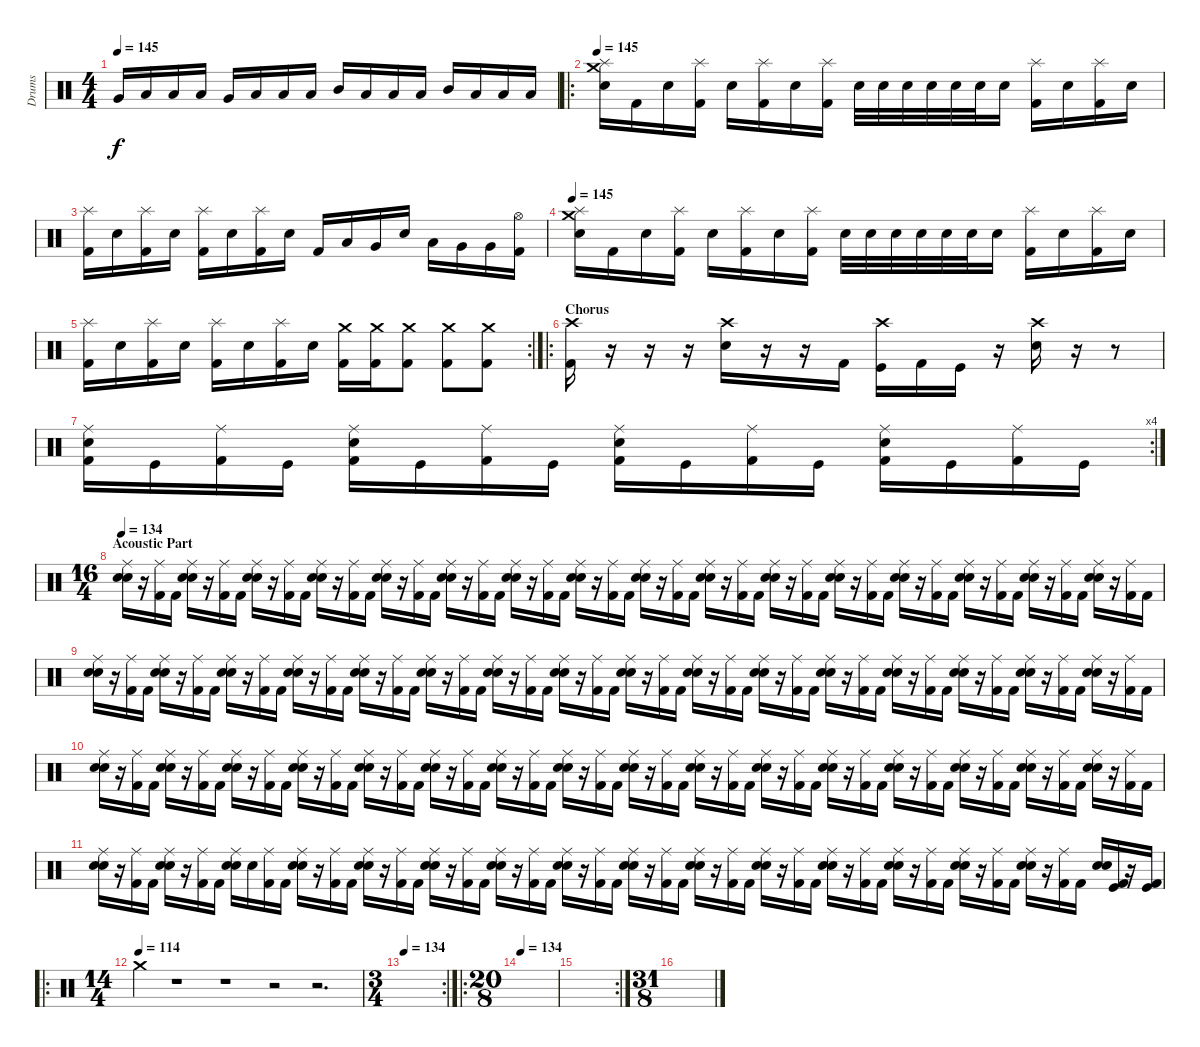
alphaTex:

\track ("Drums" "Drums") {instrument percussion}
\staff {score}
\articulation defaults
\ts (4 4)
\tempo 145
\clef neutral
\ks c "Very Low Tom (hit)".16{dy f} "Low Floor Tom (hit)".16 "Low Floor Tom (hit)".16 "Low Floor Tom (hit)".16 "Very Low Tom (hit)".16 "Low Floor Tom (hit)".16 "Low Floor Tom (hit)".16 "Low Floor Tom (hit)".16 "Mid Tom (hit)".16 "Low Tom (hit)".16 "Low Tom (hit)".16 "Low Tom (hit)".16 "Mid Tom (hit)".16 "Low Tom (hit)".16 "Low Tom (hit)".16 "Low Tom (hit)".16
|
\ro
\tempo 145
("Electric Snare (hit)" "Crash medium (hit)" "Splash (hit)").16 "Kick (hit) 2".16 "Electric Snare (hit)".16 ("Kick (hit) 2" "Splash (hit)").16 "Electric Snare (hit)".16 ("Kick (hit) 2" "Splash (hit)").16 "Electric Snare (hit)".16 ("Kick (hit) 2" "Splash (hit)").16 "Electric Snare (hit)".32 "Electric Snare (hit)".32 "Electric Snare (hit)".32 "Electric Snare (hit)".32 "Electric Snare (hit)".32 "Electric Snare (hit)".32 "Electric Snare (hit)".16 ("Kick (hit) 2" "Splash (hit)").16 "Electric Snare (hit)".16 ("Kick (hit) 2" "Splash (hit)").16 "Electric Snare (hit)".16 |
("Kick (hit) 2" "Splash (hit)").16 "Electric Snare (hit)".16 ("Kick (hit) 2" "Splash (hit)").16 "Electric Snare (hit)".16 ("Kick (hit) 2" "Splash (hit)").16 "Electric Snare (hit)".16 ("Kick (hit) 2" "Splash (hit)").16 "Electric Snare (hit)".16 "Kick (hit) 2".16 "Low Tom (hit)".16 "Very Low Tom (hit)".16 "Electric Snare (hit)".16 "Low Tom (hit)".16 "Very Low Tom (hit)".16 "Very Low Tom (hit)".16 ("Kick (hit) 2" "Hi-Hat (open)").16 |
\tempo 145
("Electric Snare (hit)" "Crash medium (hit)" "Splash (hit)").16 "Kick (hit) 2".16 "Electric Snare (hit)".16 ("Kick (hit) 2" "Splash (hit)").16 "Electric Snare (hit)".16 ("Kick (hit) 2" "Splash (hit)").16 "Electric Snare (hit)".16 ("Kick (hit) 2" "Splash (hit)").16 "Electric Snare (hit)".32 "Electric Snare (hit)".32 "Electric Snare (hit)".32 "Electric Snare (hit)".32 "Electric Snare (hit)".32 "Electric Snare (hit)".32 "Electric Snare (hit)".16 ("Kick (hit) 2" "Splash (hit)").16 "Electric Snare (hit)".16 ("Kick (hit) 2" "Splash (hit)").16 "Electric Snare (hit)".16 |
\rc 2
("Kick (hit) 2" "Splash (hit)").16 "Electric Snare (hit)".16 ("Kick (hit) 2" "Splash (hit)").16 "Electric Snare (hit)".16 ("Kick (hit) 2" "Splash (hit)").16 "Electric Snare (hit)".16 ("Kick (hit) 2" "Splash (hit)").16 "Electric Snare (hit)".16 ("Kick (hit) 2" "Crash medium (hit)").16 ("Kick (hit) 2" "Crash medium (hit)").16 ("Kick (hit) 2" "Crash medium (hit)").8 ("Kick (hit) 2" "Crash medium (hit)").8 ("Kick (hit) 2" "Crash medium (hit)").8 |
\ro
\section ("" "Chorus")
("Kick (hit) 2" "Crash high (hit)").16 r.16 r.16 r.16 ("Electric Snare (hit)" "Crash high (hit)").16 r.16 r.16 "Kick (hit) 2".16 ("Kick (hit)" "Crash high (hit)").16 "Kick (hit) 2".16 "Kick (hit)".16 r.16 ("Electric Snare (hit)" "Crash high (hit)").16 r.16 r.8 |
\rc 4
("Kick (hit) 2" "Electric Snare (hit)" "Ride (middle)").16 "Kick (hit)".16 ("Kick (hit) 2" "Ride (middle)").16 "Kick (hit)".16 ("Kick (hit) 2" "Electric Snare (hit)" "Ride (middle)").16 "Kick (hit)".16 ("Kick (hit) 2" "Ride (middle)").16 "Kick (hit)".16 ("Kick (hit) 2" "Electric Snare (hit)" "Ride (middle)").16 "Kick (hit)".16 ("Kick (hit) 2" "Ride (middle)").16 "Kick (hit)".16 ("Kick (hit) 2" "Electric Snare (hit)" "Ride (middle)").16 "Kick (hit)".16 ("Kick (hit) 2" "Ride (middle)").16 "Kick (hit)".16 |
\ts (16 4)
\section ("" "Acoustic Part")
\tempo 134
("Electric Snare (hit)" "Electric Snare (hit)" "Ride (middle)").16 r.16 ("Kick (hit) 2" "Ride (middle)").16 "Kick (hit) 2".16 ("Electric Snare (hit)" "Electric Snare (hit)" "Ride (middle)").16 r.16 ("Kick (hit) 2" "Ride (middle)").16 "Kick (hit) 2".16 ("Electric Snare (hit)" "Electric Snare (hit)" "Ride (middle)").16 r.16 ("Kick (hit) 2" "Ride (middle)").16 "Kick (hit) 2".16 ("Electric Snare (hit)" "Electric Snare (hit)" "Ride (middle)").16 r.16 ("Kick (hit) 2" "Ride (middle)").16 "Kick (hit) 2".16 ("Electric Snare (hit)" "Electric Snare (hit)" "Ride (middle)").16 r.16 ("Kick (hit) 2" "Ride (middle)").16 "Kick (hit) 2".16 ("Electric Snare (hit)" "Electric Snare (hit)" "Ride (middle)").16 r.16 ("Kick (hit) 2" "Ride (middle)").16 "Kick (hit) 2".16 ("Electric Snare (hit)" "Electric Snare (hit)" "Ride (middle)").16 r.16 ("Kick (hit) 2" "Ride (middle)").16 "Kick (hit) 2".16 ("Electric Snare (hit)" "Electric Snare (hit)" "Ride (middle)").16 r.16 ("Kick (hit) 2" "Ride (middle)").16 "Kick (hit) 2".16 ("Electric Snare (hit)" "Electric Snare (hit)" "Ride (middle)").16 r.16 ("Kick (hit) 2" "Ride (middle)").16 "Kick (hit) 2".16 ("Electric Snare (hit)" "Electric Snare (hit)" "Ride (middle)").16 r.16 ("Kick (hit) 2" "Ride (middle)").16 "Kick (hit) 2".16 ("Electric Snare (hit)" "Electric Snare (hit)" "Ride (middle)").16 r.16 ("Kick (hit) 2" "Ride (middle)").16 "Kick (hit) 2".16 ("Electric Snare (hit)" "Electric Snare (hit)" "Ride (middle)").16 r.16 ("Kick (hit) 2" "Ride (middle)").16 "Kick (hit) 2".16 ("Electric Snare (hit)" "Electric Snare (hit)" "Ride (middle)").16 r.16 ("Kick (hit) 2" "Ride (middle)").16 "Kick (hit) 2".16 ("Electric Snare (hit)" "Electric Snare (hit)" "Ride (middle)").16 r.16 ("Kick (hit) 2" "Ride (middle)").16 "Kick (hit) 2".16 ("Electric Snare (hit)" "Electric Snare (hit)" "Ride (middle)").16 r.16 ("Kick (hit) 2" "Ride (middle)").16 "Kick (hit) 2".16 ("Electric Snare (hit)" "Electric Snare (hit)" "Ride (middle)").16 r.16 ("Kick (hit) 2" "Ride (middle)").16 "Kick (hit) 2".16 |
("Electric Snare (hit)" "Electric Snare (hit)" "Ride (middle)").16 r.16 ("Kick (hit) 2" "Ride (middle)").16 "Kick (hit) 2".16 ("Electric Snare (hit)" "Electric Snare (hit)" "Ride (middle)").16 r.16 ("Kick (hit) 2" "Ride (middle)").16 "Kick (hit) 2".16 ("Electric Snare (hit)" "Electric Snare (hit)" "Ride (middle)").16 r.16 ("Kick (hit) 2" "Ride (middle)").16 "Kick (hit) 2".16 ("Electric Snare (hit)" "Electric Snare (hit)" "Ride (middle)").16 r.16 ("Kick (hit) 2" "Ride (middle)").16 "Kick (hit) 2".16 ("Electric Snare (hit)" "Electric Snare (hit)" "Ride (middle)").16 r.16 ("Kick (hit) 2" "Ride (middle)").16 "Kick (hit) 2".16 ("Electric Snare (hit)" "Electric Snare (hit)" "Ride (middle)").16 r.16 ("Kick (hit) 2" "Ride (middle)").16 "Kick (hit) 2".16 ("Electric Snare (hit)" "Electric Snare (hit)" "Ride (middle)").16 r.16 ("Kick (hit) 2" "Ride (middle)").16 "Kick (hit) 2".16 ("Electric Snare (hit)" "Electric Snare (hit)" "Ride (middle)").16 r.16 ("Kick (hit) 2" "Ride (middle)").16 "Kick (hit) 2".16 ("Electric Snare (hit)" "Electric Snare (hit)" "Ride (middle)").16 r.16 ("Kick (hit) 2" "Ride (middle)").16 "Kick (hit) 2".16 ("Electric Snare (hit)" "Electric Snare (hit)" "Ride (middle)").16 r.16 ("Kick (hit) 2" "Ride (middle)").16 "Kick (hit) 2".16 ("Electric Snare (hit)" "Electric Snare (hit)" "Ride (middle)").16 r.16 ("Kick (hit) 2" "Ride (middle)").16 "Kick (hit) 2".16 ("Electric Snare (hit)" "Electric Snare (hit)" "Ride (middle)").16 r.16 ("Kick (hit) 2" "Ride (middle)").16 "Kick (hit) 2".16 ("Electric Snare (hit)" "Electric Snare (hit)" "Ride (middle)").16 r.16 ("Kick (hit) 2" "Ride (middle)").16 "Kick (hit) 2".16 ("Electric Snare (hit)" "Electric Snare (hit)" "Ride (middle)").16 r.16 ("Kick (hit) 2" "Ride (middle)").16 "Kick (hit) 2".16 ("Electric Snare (hit)" "Electric Snare (hit)" "Ride (middle)").16 r.16 ("Kick (hit) 2" "Ride (middle)").16 "Kick (hit) 2".16 ("Electric Snare (hit)" "Electric Snare (hit)" "Ride (middle)").16 r.16 ("Kick (hit) 2" "Ride (middle)").16 "Kick (hit) 2".16 |
("Electric Snare (hit)" "Electric Snare (hit)" "Ride (middle)").16 r.16 ("Kick (hit) 2" "Ride (middle)").16 "Kick (hit) 2".16 ("Electric Snare (hit)" "Electric Snare (hit)" "Ride (middle)").16 r.16 ("Kick (hit) 2" "Ride (middle)").16 "Kick (hit) 2".16 ("Electric Snare (hit)" "Electric Snare (hit)" "Ride (middle)").16 r.16 ("Kick (hit) 2" "Ride (middle)").16 "Kick (hit) 2".16 ("Electric Snare (hit)" "Electric Snare (hit)" "Ride (middle)").16 r.16 ("Kick (hit) 2" "Ride (middle)").16 "Kick (hit) 2".16 ("Electric Snare (hit)" "Electric Snare (hit)" "Ride (middle)").16 r.16 ("Kick (hit) 2" "Ride (middle)").16 "Kick (hit) 2".16 ("Electric Snare (hit)" "Electric Snare (hit)" "Ride (middle)").16 r.16 ("Kick (hit) 2" "Ride (middle)").16 "Kick (hit) 2".16 ("Electric Snare (hit)" "Electric Snare (hit)" "Ride (middle)").16 r.16 ("Kick (hit) 2" "Ride (middle)").16 "Kick (hit) 2".16 ("Electric Snare (hit)" "Electric Snare (hit)" "Ride (middle)").16 r.16 ("Kick (hit) 2" "Ride (middle)").16 "Kick (hit) 2".16 ("Electric Snare (hit)" "Electric Snare (hit)" "Ride (middle)").16 r.16 ("Kick (hit) 2" "Ride (middle)").16 "Kick (hit) 2".16 ("Electric Snare (hit)" "Electric Snare (hit)" "Ride (middle)").16 r.16 ("Kick (hit) 2" "Ride (middle)").16 "Kick (hit) 2".16 ("Electric Snare (hit)" "Electric Snare (hit)" "Ride (middle)").16 r.16 ("Kick (hit) 2" "Ride (middle)").16 "Kick (hit) 2".16 ("Electric Snare (hit)" "Electric Snare (hit)" "Ride (middle)").16 r.16 ("Kick (hit) 2" "Ride (middle)").16 "Kick (hit) 2".16 ("Electric Snare (hit)" "Electric Snare (hit)" "Ride (middle)").16 r.16 ("Kick (hit) 2" "Ride (middle)").16 "Kick (hit) 2".16 ("Electric Snare (hit)" "Electric Snare (hit)" "Ride (middle)").16 r.16 ("Kick (hit) 2" "Ride (middle)").16 "Kick (hit) 2".16 ("Electric Snare (hit)" "Electric Snare (hit)" "Ride (middle)").16 r.16 ("Kick (hit) 2" "Ride (middle)").16 "Kick (hit) 2".16 ("Electric Snare (hit)" "Electric Snare (hit)" "Ride (middle)").16 r.16 ("Kick (hit) 2" "Ride (middle)").16 "Kick (hit) 2".16 |
("Electric Snare (hit)" "Electric Snare (hit)" "Ride (middle)").16 r.16 ("Kick (hit) 2" "Ride (middle)").16 "Kick (hit) 2".16 ("Electric Snare (hit)" "Electric Snare (hit)" "Ride (middle)").16 r.16 ("Kick (hit) 2" "Ride (middle)").16 "Kick (hit) 2".16 ("Electric Snare (hit)" "Electric Snare (hit)" "Ride (middle)").16 "Snare (hit)".16 ("Kick (hit) 2" "Ride (middle)").16 "Kick (hit) 2".16 ("Electric Snare (hit)" "Electric Snare (hit)" "Ride (middle)").16 r.16 ("Kick (hit) 2" "Ride (middle)").16 "Kick (hit) 2".16 ("Electric Snare (hit)" "Electric Snare (hit)" "Ride (middle)").16 r.16 ("Kick (hit) 2" "Ride (middle)").16 "Kick (hit) 2".16 ("Electric Snare (hit)" "Electric Snare (hit)" "Ride (middle)").16 r.16 ("Kick (hit) 2" "Ride (middle)").16 "Kick (hit) 2".16 ("Electric Snare (hit)" "Electric Snare (hit)" "Ride (middle)").16 r.16 ("Kick (hit) 2" "Ride (middle)").16 "Kick (hit) 2".16 ("Electric Snare (hit)" "Electric Snare (hit)" "Ride (middle)").16 r.16 ("Kick (hit) 2" "Ride (middle)").16 "Kick (hit) 2".16 ("Electric Snare (hit)" "Electric Snare (hit)" "Ride (middle)").16 r.16 ("Kick (hit) 2" "Ride (middle)").16 "Kick (hit) 2".16 ("Electric Snare (hit)" "Electric Snare (hit)" "Ride (middle)").16 r.16 ("Kick (hit) 2" "Ride (middle)").16 "Kick (hit) 2".16 ("Electric Snare (hit)" "Electric Snare (hit)" "Ride (middle)").16 r.16 ("Kick (hit) 2" "Ride (middle)").16 "Kick (hit) 2".16 ("Electric Snare (hit)" "Electric Snare (hit)" "Ride (middle)").16 r.16 ("Kick (hit) 2" "Ride (middle)").16 "Kick (hit) 2".16 ("Electric Snare (hit)" "Electric Snare (hit)" "Ride (middle)").16 r.16 ("Kick (hit) 2" "Ride (middle)").16 "Kick (hit) 2".16 ("Electric Snare (hit)" "Electric Snare (hit)" "Ride (middle)").16 r.16 ("Kick (hit) 2" "Ride (middle)").16 "Kick (hit) 2".16 ("Electric Snare (hit)" "Electric Snare (hit)" "Ride (middle)").16 r.16 ("Kick (hit) 2" "Ride (middle)").16 "Kick (hit) 2".16 ("Electric Snare (hit)" "Electric Snare (hit)").16 ("Kick (hit) 2" "Kick (hit)").16 r.16 ("Kick (hit) 2" "Kick (hit)").16 |
\ro
\ts (14 4)
\tempo (114)
"Crash medium (hit)".4 r.1 r.1 r.2 r.2{d} |
\rc 2
\ts (3 4)
\tempo 134
|
\ro
\ts (20 8)
\tempo 134
|
\rc 2
|
\ts (31 8)
